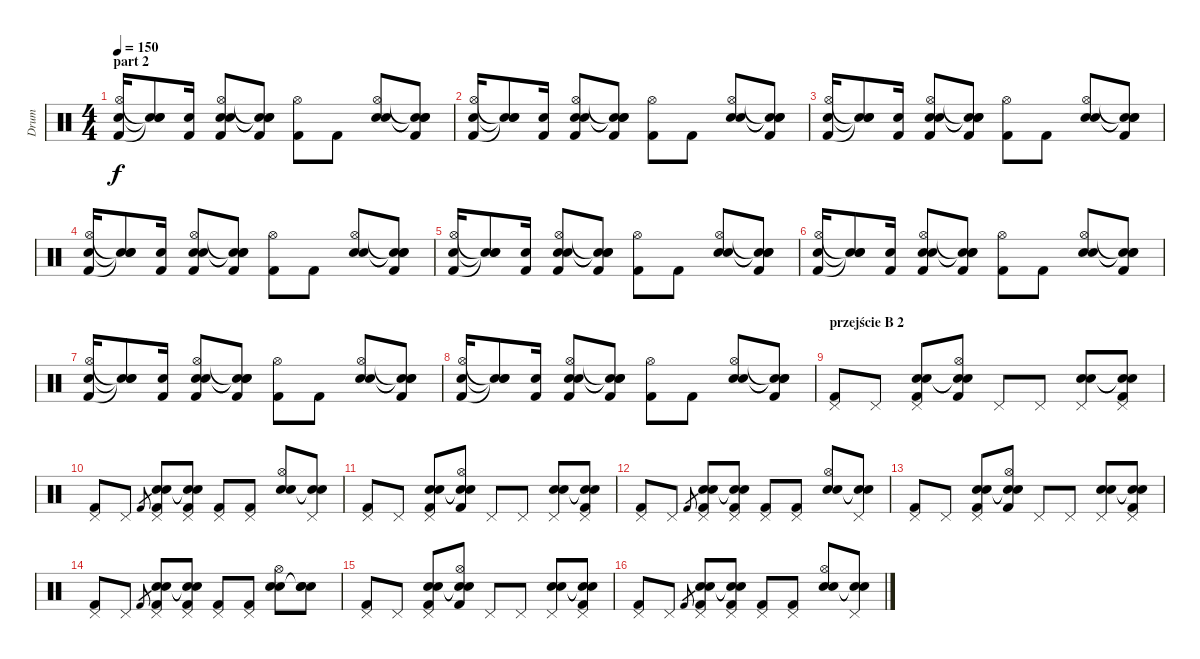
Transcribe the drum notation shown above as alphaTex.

\track ("Drum" "Drum") {instrument percussion}
\staff {score}
\articulation defaults
\ts (4 4)
\section ("" "part 2")
\tempo 150
\clef neutral
\ks c
("Snare (hit) 2" "Hi-Hat (open)" "Kick (hit) 2").16{dy f} ("Electric Snare (hit)"{t} "Snare (hit)"{t} "Snare (hit)"{t}).8 ("Snare (hit) 2" "Kick (hit) 2").16 ("Electric Snare (hit)" "Snare (hit) 2" "Hi-Hat (open)" "Kick (hit) 2").8 ("Snare (hit)"{t} "Snare (hit)"{t} "Snare (hit)"{t} "Kick (hit) 2").8 ("Hi-Hat (open)" "Kick (hit) 2").8 "Kick (hit) 2".8 ("Electric Snare (hit)" "Snare (hit) 2" "Hi-Hat (open)").8 ("Snare (hit)"{t} "Snare (hit)"{t} "Snare (hit)"{t} "Kick (hit) 2").8 |
("Snare (hit) 2" "Hi-Hat (open)" "Kick (hit) 2").16 ("Electric Snare (hit)"{t} "Snare (hit)"{t} "Snare (hit)"{t}).8 ("Snare (hit) 2" "Kick (hit) 2").16 ("Electric Snare (hit)" "Snare (hit) 2" "Hi-Hat (open)" "Kick (hit) 2").8 ("Snare (hit)"{t} "Snare (hit)"{t} "Snare (hit)"{t} "Kick (hit) 2").8 ("Hi-Hat (open)" "Kick (hit) 2").8 "Kick (hit) 2".8 ("Electric Snare (hit)" "Snare (hit) 2" "Hi-Hat (open)").8 ("Snare (hit)"{t} "Snare (hit)"{t} "Snare (hit)"{t} "Kick (hit) 2").8 |
("Snare (hit) 2" "Hi-Hat (open)" "Kick (hit) 2").16 ("Electric Snare (hit)"{t} "Snare (hit)"{t} "Snare (hit)"{t}).8 ("Snare (hit) 2" "Kick (hit) 2").16 ("Electric Snare (hit)" "Snare (hit) 2" "Hi-Hat (open)" "Kick (hit) 2").8 ("Snare (hit)"{t} "Snare (hit)"{t} "Snare (hit)"{t} "Kick (hit) 2").8 ("Hi-Hat (open)" "Kick (hit) 2").8 "Kick (hit) 2".8 ("Electric Snare (hit)" "Snare (hit) 2" "Hi-Hat (open)").8 ("Snare (hit)"{t} "Snare (hit)"{t} "Snare (hit)"{t} "Kick (hit) 2").8 |
("Snare (hit) 2" "Hi-Hat (open)" "Kick (hit) 2").16 ("Electric Snare (hit)"{t} "Snare (hit)"{t} "Snare (hit)"{t}).8 ("Snare (hit) 2" "Kick (hit) 2").16 ("Electric Snare (hit)" "Snare (hit) 2" "Hi-Hat (open)" "Kick (hit) 2").8 ("Snare (hit)"{t} "Snare (hit)"{t} "Snare (hit)"{t} "Kick (hit) 2").8 ("Hi-Hat (open)" "Kick (hit) 2").8 "Kick (hit) 2".8 ("Electric Snare (hit)" "Snare (hit) 2" "Hi-Hat (open)").8 ("Snare (hit)"{t} "Snare (hit)"{t} "Snare (hit)"{t} "Kick (hit) 2").8 |
("Snare (hit) 2" "Hi-Hat (open)" "Kick (hit) 2").16 ("Electric Snare (hit)"{t} "Snare (hit)"{t} "Snare (hit)"{t}).8 ("Snare (hit) 2" "Kick (hit) 2").16 ("Electric Snare (hit)" "Snare (hit) 2" "Hi-Hat (open)" "Kick (hit) 2").8 ("Snare (hit)"{t} "Snare (hit)"{t} "Snare (hit)"{t} "Kick (hit) 2").8 ("Hi-Hat (open)" "Kick (hit) 2").8 "Kick (hit) 2".8 ("Electric Snare (hit)" "Snare (hit) 2" "Hi-Hat (open)").8 ("Snare (hit)"{t} "Snare (hit)"{t} "Snare (hit)"{t} "Kick (hit) 2").8 |
("Snare (hit) 2" "Hi-Hat (open)" "Kick (hit) 2").16 ("Electric Snare (hit)"{t} "Snare (hit)"{t} "Snare (hit)"{t}).8 ("Snare (hit) 2" "Kick (hit) 2").16 ("Electric Snare (hit)" "Snare (hit) 2" "Hi-Hat (open)" "Kick (hit) 2").8 ("Snare (hit)"{t} "Snare (hit)"{t} "Snare (hit)"{t} "Kick (hit) 2").8 ("Hi-Hat (open)" "Kick (hit) 2").8 "Kick (hit) 2".8 ("Electric Snare (hit)" "Snare (hit) 2" "Hi-Hat (open)").8 ("Snare (hit)"{t} "Snare (hit)"{t} "Snare (hit)"{t} "Kick (hit) 2").8 |
("Snare (hit) 2" "Hi-Hat (open)" "Kick (hit) 2").16 ("Electric Snare (hit)"{t} "Snare (hit)"{t} "Snare (hit)"{t}).8 ("Snare (hit) 2" "Kick (hit) 2").16 ("Electric Snare (hit)" "Snare (hit) 2" "Hi-Hat (open)" "Kick (hit) 2").8 ("Snare (hit)"{t} "Snare (hit)"{t} "Snare (hit)"{t} "Kick (hit) 2").8 ("Hi-Hat (open)" "Kick (hit) 2").8 "Kick (hit) 2".8 ("Electric Snare (hit)" "Snare (hit) 2" "Hi-Hat (open)").8 ("Snare (hit)"{t} "Snare (hit)"{t} "Snare (hit)"{t} "Kick (hit) 2").8 |
("Snare (hit) 2" "Hi-Hat (open)" "Kick (hit) 2").16 ("Electric Snare (hit)"{t} "Snare (hit)"{t} "Snare (hit)"{t}).8 ("Snare (hit) 2" "Kick (hit) 2").16 ("Electric Snare (hit)" "Snare (hit) 2" "Hi-Hat (open)" "Kick (hit) 2").8 ("Snare (hit)"{t} "Snare (hit)"{t} "Snare (hit)"{t} "Kick (hit) 2").8 ("Hi-Hat (open)" "Kick (hit) 2").8 "Kick (hit) 2".8 ("Electric Snare (hit)" "Snare (hit) 2" "Hi-Hat (open)").8 ("Snare (hit)"{t} "Snare (hit)"{t} "Snare (hit)"{t} "Kick (hit) 2").8 |
\section ("" "przejście B 2")
("Kick (hit) 2" "Pedal Hi-Hat (hit)").8 "Pedal Hi-Hat (hit)".8 ("Electric Snare (hit)" "Snare (hit) 2" "Kick (hit) 2" "Pedal Hi-Hat (hit)").8 ("Electric Snare (hit)"{t} "Snare (hit)"{t} "Kick (hit) 2" "Hi-Hat (open)").8 "Pedal Hi-Hat (hit)".8 "Pedal Hi-Hat (hit)".8 ("Electric Snare (hit)" "Snare (hit) 2" "Pedal Hi-Hat (hit)").8 ("Snare (hit)"{t} "Snare (hit)"{t} "Kick (hit) 2" "Pedal Hi-Hat (hit)").8 |
("Kick (hit) 2" "Pedal Hi-Hat (hit)").8 "Pedal Hi-Hat (hit)".8 "Kick (hit) 2".8{gr} ("Electric Snare (hit)" "Snare (hit) 2" "Kick (hit) 2" "Pedal Hi-Hat (hit)").8 ("Electric Snare (hit)"{t} "Snare (hit)"{t} "Kick (hit) 2" "Pedal Hi-Hat (hit)").8 ("Kick (hit) 2" "Pedal Hi-Hat (hit)").8 ("Kick (hit) 2" "Pedal Hi-Hat (hit)").8 ("Electric Snare (hit)" "Snare (hit) 2" "Hi-Hat (open)").8 ("Snare (hit)"{t} "Snare (hit)"{t} "Pedal Hi-Hat (hit)").8 |
("Kick (hit) 2" "Pedal Hi-Hat (hit)").8 "Pedal Hi-Hat (hit)".8 ("Electric Snare (hit)" "Snare (hit) 2" "Kick (hit) 2" "Pedal Hi-Hat (hit)").8 ("Electric Snare (hit)"{t} "Snare (hit)"{t} "Kick (hit) 2" "Hi-Hat (open)").8 "Pedal Hi-Hat (hit)".8 "Pedal Hi-Hat (hit)".8 ("Electric Snare (hit)" "Snare (hit) 2" "Pedal Hi-Hat (hit)").8 ("Snare (hit)"{t} "Snare (hit)"{t} "Kick (hit) 2" "Pedal Hi-Hat (hit)").8 |
("Kick (hit) 2" "Pedal Hi-Hat (hit)").8 "Pedal Hi-Hat (hit)".8 "Kick (hit) 2".8{gr} ("Electric Snare (hit)" "Snare (hit) 2" "Kick (hit) 2" "Pedal Hi-Hat (hit)").8 ("Electric Snare (hit)"{t} "Snare (hit)"{t} "Kick (hit) 2" "Pedal Hi-Hat (hit)").8 ("Kick (hit) 2" "Pedal Hi-Hat (hit)").8 ("Kick (hit) 2" "Pedal Hi-Hat (hit)").8 ("Electric Snare (hit)" "Snare (hit) 2" "Hi-Hat (open)").8 ("Snare (hit)"{t} "Snare (hit)"{t} "Pedal Hi-Hat (hit)").8 |
("Kick (hit) 2" "Pedal Hi-Hat (hit)").8 "Pedal Hi-Hat (hit)".8 ("Electric Snare (hit)" "Snare (hit) 2" "Kick (hit) 2" "Pedal Hi-Hat (hit)").8 ("Electric Snare (hit)"{t} "Snare (hit)"{t} "Kick (hit) 2" "Hi-Hat (open)").8 "Pedal Hi-Hat (hit)".8 "Pedal Hi-Hat (hit)".8 ("Electric Snare (hit)" "Snare (hit) 2" "Pedal Hi-Hat (hit)").8 ("Snare (hit)"{t} "Snare (hit)"{t} "Kick (hit) 2" "Pedal Hi-Hat (hit)").8 |
("Kick (hit) 2" "Pedal Hi-Hat (hit)").8 "Pedal Hi-Hat (hit)".8 "Kick (hit) 2".8{gr} ("Electric Snare (hit)" "Snare (hit) 2" "Kick (hit) 2" "Pedal Hi-Hat (hit)").8 ("Electric Snare (hit)"{t} "Snare (hit)"{t} "Kick (hit) 2" "Pedal Hi-Hat (hit)").8 ("Kick (hit) 2" "Pedal Hi-Hat (hit)").8 ("Kick (hit) 2" "Pedal Hi-Hat (hit)").8 ("Electric Snare (hit)" "Snare (hit) 2" "Hi-Hat (open)").8 ("Snare (hit)"{t} "Snare (hit)"{t} "Electric Snare (hit)").8 |
("Kick (hit) 2" "Pedal Hi-Hat (hit)").8 "Pedal Hi-Hat (hit)".8 ("Electric Snare (hit)" "Snare (hit) 2" "Kick (hit) 2" "Pedal Hi-Hat (hit)").8 ("Electric Snare (hit)"{t} "Snare (hit)"{t} "Kick (hit) 2" "Hi-Hat (open)").8 "Pedal Hi-Hat (hit)".8 "Pedal Hi-Hat (hit)".8 ("Electric Snare (hit)" "Snare (hit) 2" "Pedal Hi-Hat (hit)").8 ("Snare (hit)"{t} "Snare (hit)"{t} "Kick (hit) 2" "Pedal Hi-Hat (hit)").8 |
("Kick (hit) 2" "Pedal Hi-Hat (hit)").8 "Pedal Hi-Hat (hit)".8 "Kick (hit) 2".8{gr} ("Electric Snare (hit)" "Snare (hit) 2" "Kick (hit) 2" "Pedal Hi-Hat (hit)").8 ("Electric Snare (hit)"{t} "Snare (hit)"{t} "Kick (hit) 2" "Pedal Hi-Hat (hit)").8 ("Kick (hit) 2" "Pedal Hi-Hat (hit)").8 ("Kick (hit) 2" "Pedal Hi-Hat (hit)").8 ("Electric Snare (hit)" "Snare (hit) 2" "Hi-Hat (open)").8 ("Snare (hit)"{t} "Snare (hit)"{t} "Pedal Hi-Hat (hit)").8
